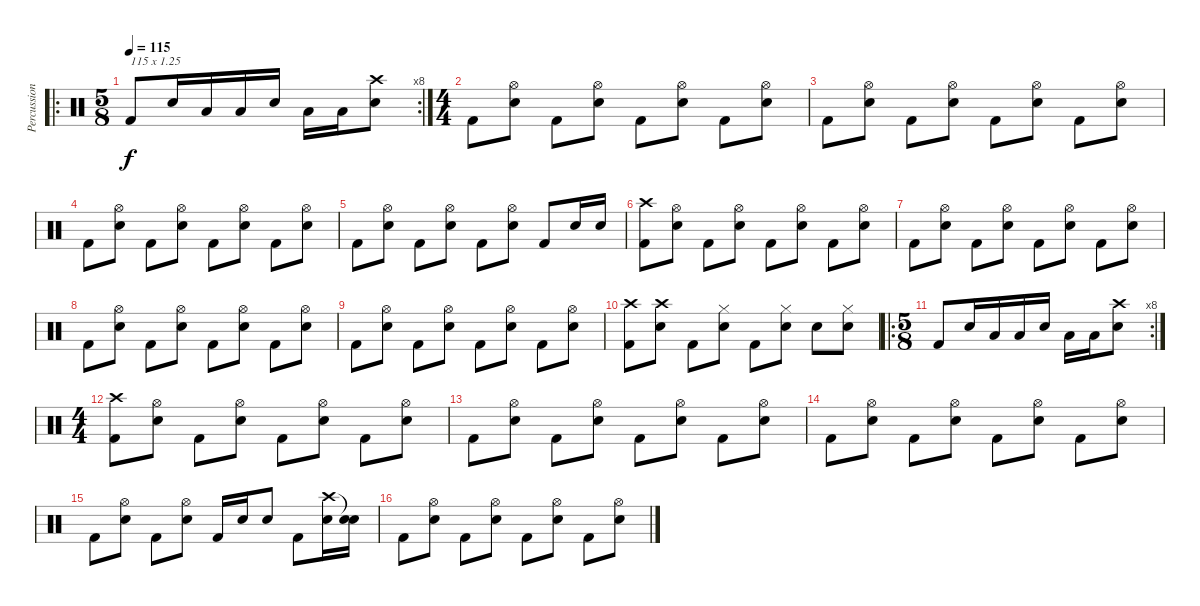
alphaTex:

\track ("Percussion" "Percussion") {instrument percussion}
\staff {score}
\articulation defaults
\ro
\rc 8
\ts (5 8)
\tempo 115
\clef neutral
\ks c "Kick (hit) 2".8{txt "115 x 1.25" dy f} "Electric Snare (hit)".16 "Low Tom (hit)".16 "Low Tom (hit)".16 "Electric Snare (hit)".16 "Low Tom (hit)".16 "Low Tom (hit)".16
("Crash high (hit)" "Electric Snare (hit)").8 |
\ts (4 4)
"Kick (hit) 2".8 ("Hi-Hat (open)" "Electric Snare (hit)").8 "Kick (hit) 2".8 ("Hi-Hat (open)" "Electric Snare (hit)").8 "Kick (hit) 2".8 ("Hi-Hat (open)" "Electric Snare (hit)").8 "Kick (hit) 2".8 ("Hi-Hat (open)" "Electric Snare (hit)").8 |
"Kick (hit) 2".8 ("Hi-Hat (open)" "Electric Snare (hit)").8 "Kick (hit) 2".8 ("Hi-Hat (open)" "Electric Snare (hit)").8 "Kick (hit) 2".8 ("Hi-Hat (open)" "Electric Snare (hit)").8 "Kick (hit) 2".8 ("Hi-Hat (open)" "Electric Snare (hit)").8 |
"Kick (hit) 2".8 ("Hi-Hat (open)" "Electric Snare (hit)").8 "Kick (hit) 2".8 ("Hi-Hat (open)" "Electric Snare (hit)").8 "Kick (hit) 2".8 ("Hi-Hat (open)" "Electric Snare (hit)").8 "Kick (hit) 2".8 ("Hi-Hat (open)" "Electric Snare (hit)").8 |
"Kick (hit) 2".8 ("Hi-Hat (open)" "Electric Snare (hit)").8 "Kick (hit) 2".8 ("Hi-Hat (open)" "Electric Snare (hit)").8 "Kick (hit) 2".8 ("Hi-Hat (open)" "Electric Snare (hit)").8 "Kick (hit) 2".8 "Electric Snare (hit)".16 "Electric Snare (hit)".16 |
("Crash high (hit)" "Kick (hit) 2").8 ("Hi-Hat (open)" "Electric Snare (hit)").8 "Kick (hit) 2".8 ("Hi-Hat (open)" "Electric Snare (hit)").8 "Kick (hit) 2".8 ("Hi-Hat (open)" "Electric Snare (hit)").8 "Kick (hit) 2".8 ("Hi-Hat (open)" "Electric Snare (hit)").8 |
"Kick (hit) 2".8 ("Hi-Hat (open)" "Electric Snare (hit)").8 "Kick (hit) 2".8 ("Hi-Hat (open)" "Electric Snare (hit)").8 "Kick (hit) 2".8 ("Hi-Hat (open)" "Electric Snare (hit)").8 "Kick (hit) 2".8 ("Hi-Hat (open)" "Electric Snare (hit)").8 |
"Kick (hit) 2".8 ("Hi-Hat (open)" "Electric Snare (hit)").8 "Kick (hit) 2".8 ("Hi-Hat (open)" "Electric Snare (hit)").8 "Kick (hit) 2".8 ("Hi-Hat (open)" "Electric Snare (hit)").8 "Kick (hit) 2".8 ("Hi-Hat (open)" "Electric Snare (hit)").8 |
"Kick (hit) 2".8 ("Hi-Hat (open)" "Electric Snare (hit)").8 "Kick (hit) 2".8 ("Hi-Hat (open)" "Electric Snare (hit)").8 "Kick (hit) 2".8 ("Hi-Hat (open)" "Electric Snare (hit)").8 "Kick (hit) 2".8 ("Hi-Hat (open)" "Electric Snare (hit)").8 |
("Crash high (hit)" "Kick (hit) 2").8 ("Crash high (hit)" "Electric Snare (hit)").8 "Kick (hit) 2".8 ("Hi-Hat (closed)" "Electric Snare (hit)").8 "Kick (hit) 2".8 ("Hi-Hat (closed)" "Electric Snare (hit)").8 "Electric Snare (hit)".8 ("Hi-Hat (closed)" "Electric Snare (hit)").8 |
\ro
\rc 8
\ts (5 8)
"Kick (hit) 2".8 "Electric Snare (hit)".16 "Low Tom (hit)".16 "Low Tom (hit)".16 "Electric Snare (hit)".16 "Low Tom (hit)".16 "Low Tom (hit)".16 ("Crash high (hit)" "Electric Snare (hit)").8 |
\ts (4 4)
("Crash high (hit)" "Kick (hit) 2").8 ("Hi-Hat (open)" "Electric Snare (hit)").8 "Kick (hit) 2".8 ("Hi-Hat (open)" "Electric Snare (hit)").8 "Kick (hit) 2".8 ("Hi-Hat (open)" "Electric Snare (hit)").8 "Kick (hit) 2".8 ("Hi-Hat (open)" "Electric Snare (hit)").8 |
"Kick (hit) 2".8 ("Hi-Hat (open)" "Electric Snare (hit)").8 "Kick (hit) 2".8 ("Hi-Hat (open)" "Electric Snare (hit)").8 "Kick (hit) 2".8 ("Hi-Hat (open)" "Electric Snare (hit)").8 "Kick (hit) 2".8 ("Hi-Hat (open)" "Electric Snare (hit)").8 |
"Kick (hit) 2".8 ("Hi-Hat (open)" "Electric Snare (hit)").8 "Kick (hit) 2".8 ("Hi-Hat (open)" "Electric Snare (hit)").8 "Kick (hit) 2".8 ("Hi-Hat (open)" "Electric Snare (hit)").8 "Kick (hit) 2".8 ("Hi-Hat (open)" "Electric Snare (hit)").8 |
"Kick (hit) 2".8 ("Hi-Hat (open)" "Electric Snare (hit)").8 "Kick (hit) 2".8 ("Hi-Hat (open)" "Electric Snare (hit)").8 "Kick (hit) 2".16 "Electric Snare (hit)".16 "Electric Snare (hit)".8 "Kick (hit) 2".8 ("Crash high (hit)" "Electric Snare (hit)").16 ("Snare (hit)"{t} "Electric Snare (hit)").16 |
"Kick (hit) 2".8 ("Hi-Hat (open)" "Electric Snare (hit)").8 "Kick (hit) 2".8 ("Hi-Hat (open)" "Electric Snare (hit)").8 "Kick (hit) 2".8 ("Hi-Hat (open)" "Electric Snare (hit)").8 "Kick (hit) 2".8 ("Hi-Hat (open)" "Electric Snare (hit)").8
